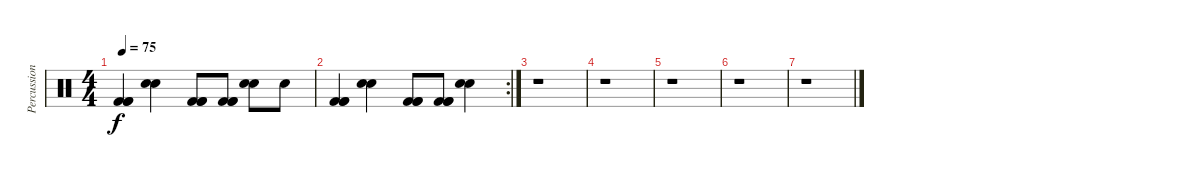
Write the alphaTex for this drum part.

\track ("Percussions" "Percussion") {instrument percussion}
\staff {score}
\articulation defaults
\ts (4 4)
\tempo 75
\clef neutral
\ks c
("Kick (hit) 2" "Kick (hit) 2" "Kick (hit) 2").4{dy f} ("Snare (hit) 2" "Snare (hit) 2").4 ("Kick (hit) 2" "Kick (hit) 2" "Kick (hit) 2").8 ("Kick (hit) 2" "Kick (hit) 2" "Kick (hit) 2").8 ("Snare (hit) 2" "Snare (hit) 2").8 "Snare (hit) 2".8 |
\rc 2
("Kick (hit) 2" "Kick (hit) 2" "Kick (hit) 2").4 ("Snare (hit) 2" "Snare (hit) 2").4 ("Kick (hit) 2" "Kick (hit) 2" "Kick (hit) 2").8 ("Kick (hit) 2" "Kick (hit) 2" "Kick (hit) 2").8 ("Snare (hit) 2" "Snare (hit) 2").4 |
r.1 |
r.1 |
r.1 |
r.1 |
r.1
